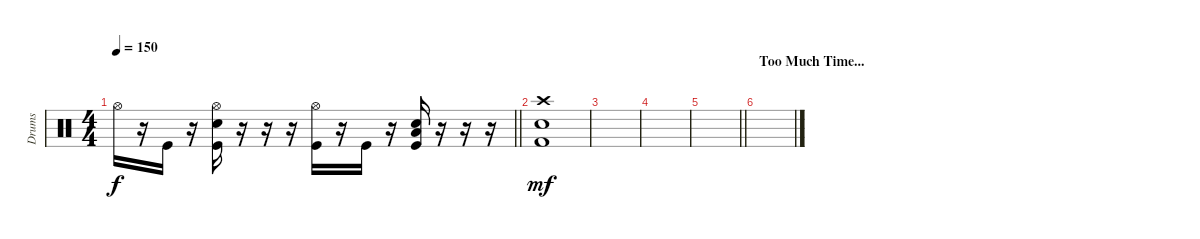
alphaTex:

\track ("Drums" "Drums") {instrument percussion}
\staff {score}
\articulation defaults
\ts (4 4)
\tempo 150
\clef neutral
\barLineRight lightlight
\ks c "Hi-Hat (open)".16{dy f}
r.16 "Kick (hit)".16 r.16 ("Hi-Hat (open)" "Snare (hit) 2" "Kick (hit)").16 r.16 r.16 r.16 ("Hi-Hat (open)" "Kick (hit)").16 r.16 "Kick (hit)".16 r.16 ("Low Floor Tom (hit)" "Snare (hit) 2" "Kick (hit)").16 r.16 r.16 r.16 |
("Crash high (hit)" "Snare (hit) 2" "Kick (hit) 2").1{dy mf} |
|
|
\barLineRight lightlight
|
\section ("" "Too Much Time...")
